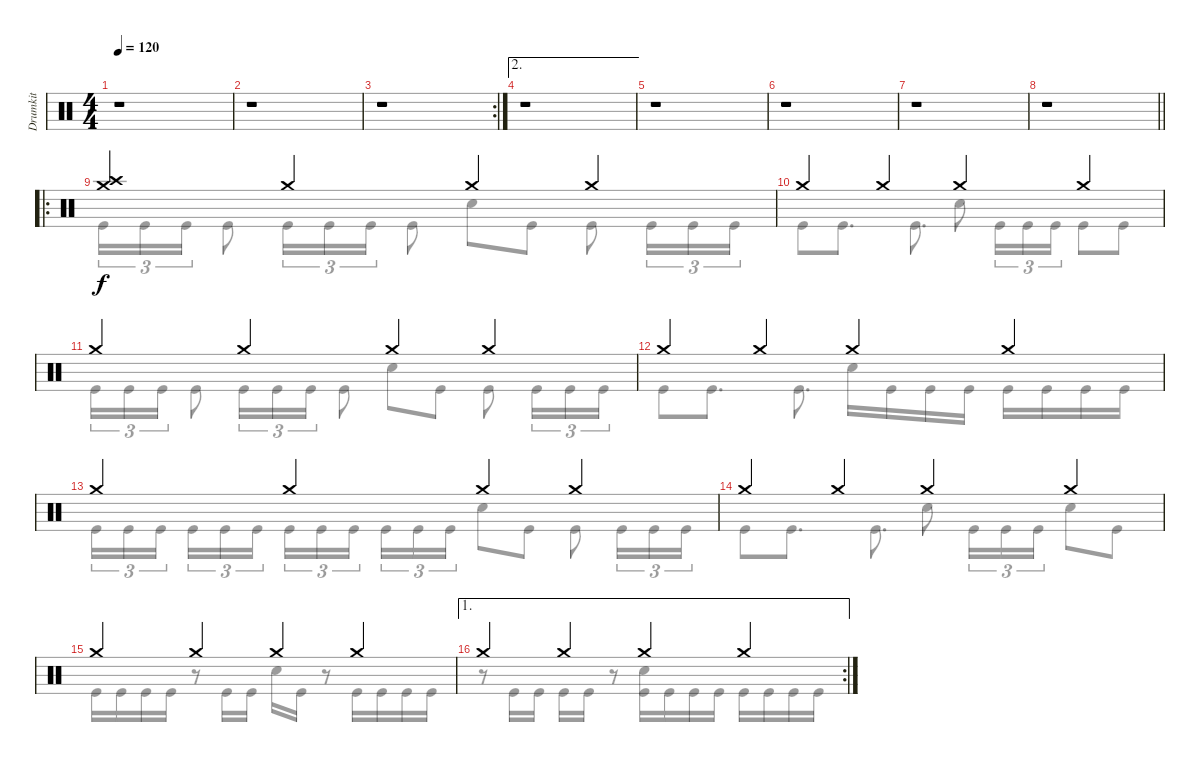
\track ("Drumkit" "Drumkit") {instrument percussion}
\staff {score}
\articulation defaults
\voice
\ts (4 4)
\tempo 120
\clef neutral
\ks c
r.1{dy f} |
r.1 |
\rc 2
r.1 |
\ae 2
r.1 |
r.1 |
r.1 |
r.1 |
\barLineRight lightlight
r.1 |
\ro
("Crash high (hit)" "Crash medium (hit)").4 "Crash medium (hit)".4 "Crash medium (hit)".4 "Crash medium (hit)".4 |
"Crash medium (hit)".4 "Crash medium (hit)".4 "Crash medium (hit)".4 "Crash medium (hit)".4 |
"Crash medium (hit)".4 "Crash medium (hit)".4 "Crash medium (hit)".4 "Crash medium (hit)".4 |
"Crash medium (hit)".4 "Crash medium (hit)".4 "Crash medium (hit)".4 "Crash medium (hit)".4 |
"Crash medium (hit)".4 "Crash medium (hit)".4 "Crash medium (hit)".4 "Crash medium (hit)".4 |
"Crash medium (hit)".4 "Crash medium (hit)".4 "Crash medium (hit)".4 "Crash medium (hit)".4 |
"Crash medium (hit)".4 "Crash medium (hit)".4 "Crash medium (hit)".4 "Crash medium (hit)".4 |
\ae 1
\rc 2 "Crash medium (hit)".4 "Crash medium (hit)".4 "Crash medium (hit)".4 "Crash medium (hit)".4
\voice
\clef neutral
\ottava regular
\simile none
\ks c
|
|
|
|
|
|
|
\barLineRight lightlight
|
"Kick (hit)".16{tu (3 2)} "Kick (hit)".16{tu (3 2)} "Kick (hit)".16{tu (3 2)} "Kick (hit)".8 "Kick (hit)".16{tu (3 2)} "Kick (hit)".16{tu (3 2)} "Kick (hit)".16{tu (3 2)} "Kick (hit)".8 "Snare (hit) 2".8 "Kick (hit)".8 "Kick (hit)".8 "Kick (hit)".16{tu (3 2)} "Kick (hit)".16{tu (3 2)} "Kick (hit)".16{tu (3 2)} |
"Kick (hit)".8 "Kick (hit)".8{d} "Kick (hit)".8{d} "Snare (hit) 2".8 "Kick (hit)".16{tu (3 2)} "Kick (hit)".16{tu (3 2)} "Kick (hit)".16{tu (3 2)} "Kick (hit)".8 "Kick (hit)".8 |
"Kick (hit)".16{tu (3 2)} "Kick (hit)".16{tu (3 2)} "Kick (hit)".16{tu (3 2)} "Kick (hit)".8 "Kick (hit)".16{tu (3 2)} "Kick (hit)".16{tu (3 2)} "Kick (hit)".16{tu (3 2)} "Kick (hit)".8 "Snare (hit) 2".8 "Kick (hit)".8 "Kick (hit)".8 "Kick (hit)".16{tu (3 2)} "Kick (hit)".16{tu (3 2)} "Kick (hit)".16{tu (3 2)} |
"Kick (hit)".8 "Kick (hit)".8{d} "Kick (hit)".8{d} "Snare (hit) 2".16 "Kick (hit)".16 "Kick (hit)".16 "Kick (hit)".16 "Kick (hit)".16 "Kick (hit)".16 "Kick (hit)".16 "Kick (hit)".16 |
"Kick (hit)".16{tu (3 2)} "Kick (hit)".16{tu (3 2)} "Kick (hit)".16{tu (3 2) beam splitsecondary} "Kick (hit)".16{tu (3 2)} "Kick (hit)".16{tu (3 2)} "Kick (hit)".16{tu (3 2)} "Kick (hit)".16{tu (3 2)} "Kick (hit)".16{tu (3 2)} "Kick (hit)".16{tu (3 2) beam splitsecondary} "Kick (hit)".16{tu (3 2)} "Kick (hit)".16{tu (3 2)} "Kick (hit)".16{tu (3 2)} "Snare (hit) 2".8 "Kick (hit)".8 "Kick (hit)".8 "Kick (hit)".16{tu (3 2)} "Kick (hit)".16{tu (3 2)} "Kick (hit)".16{tu (3 2)} |
"Kick (hit)".8 "Kick (hit)".8{d} "Kick (hit)".8{d} "Snare (hit) 2".8 "Kick (hit)".16{tu (3 2)} "Kick (hit)".16{tu (3 2)} "Kick (hit)".16{tu (3 2)} "Snare (hit) 2".8 "Kick (hit)".8 |
"Kick (hit)".16 "Kick (hit)".16 "Kick (hit)".16 "Kick (hit)".16 r.8 "Kick (hit)".16 "Kick (hit)".16 "Snare (hit) 2".16 "Kick (hit)".16 r.8 "Kick (hit)".16 "Kick (hit)".16 "Kick (hit)".16 "Kick (hit)".16 |
r.8 "Kick (hit)".16 "Kick (hit)".16 "Kick (hit)".16 "Kick (hit)".16 r.8 ("Snare (hit) 2" "Kick (hit)").16 "Kick (hit)".16 "Kick (hit)".16 "Kick (hit)".16 "Kick (hit)".16 "Kick (hit)".16 "Kick (hit)".16 "Kick (hit)".16
